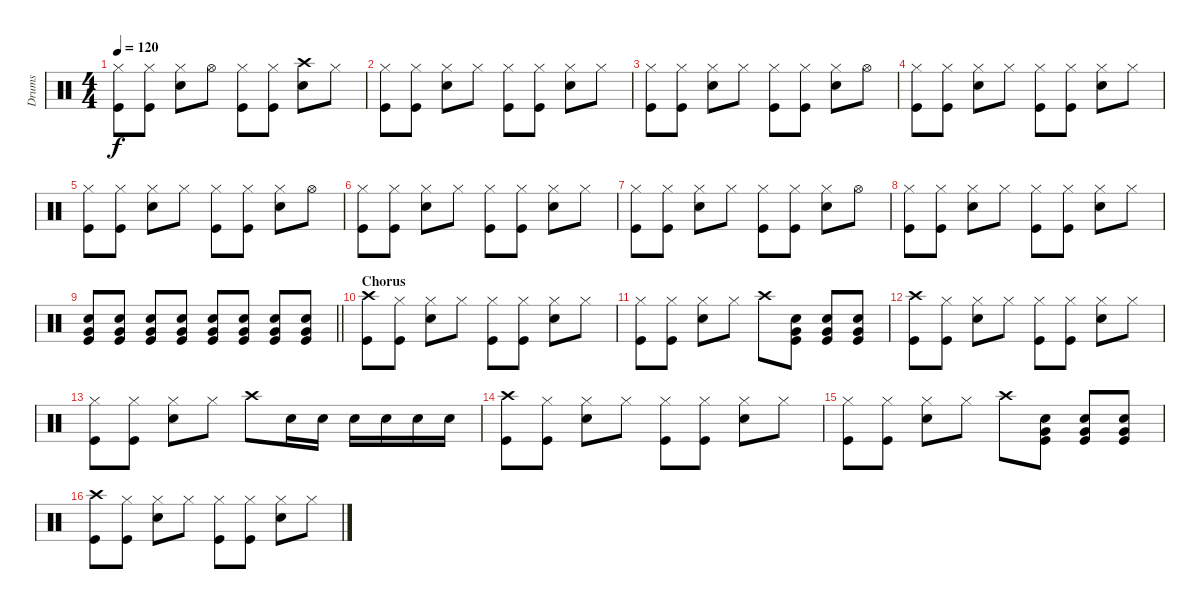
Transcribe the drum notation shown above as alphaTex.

\track ("Drums" "Drums") {instrument percussion}
\staff {score}
\articulation defaults
\ts (4 4)
\tempo 120
\clef neutral
\ks c
("Hi-Hat (closed)" "Kick (hit)").8{dy f} ("Hi-Hat (closed)" "Kick (hit)").8 ("Hi-Hat (closed)" "Snare (hit) 2").8 "Hi-Hat (open)".8 ("Hi-Hat (closed)" "Kick (hit)").8 ("Hi-Hat (closed)" "Kick (hit)").8 ("Crash high (hit)" "Snare (hit) 2").8 "Hi-Hat (closed)".8 |
("Hi-Hat (closed)" "Kick (hit)").8 ("Hi-Hat (closed)" "Kick (hit)").8 ("Hi-Hat (closed)" "Snare (hit) 2").8 "Hi-Hat (closed)".8 ("Hi-Hat (closed)" "Kick (hit)").8 ("Hi-Hat (closed)" "Kick (hit)").8 ("Hi-Hat (closed)" "Snare (hit) 2").8 "Hi-Hat (closed)".8 |
("Hi-Hat (closed)" "Kick (hit)").8 ("Hi-Hat (closed)" "Kick (hit)").8 ("Hi-Hat (closed)" "Snare (hit) 2").8 "Hi-Hat (closed)".8 ("Hi-Hat (closed)" "Kick (hit)").8 ("Hi-Hat (closed)" "Kick (hit)").8 ("Hi-Hat (closed)" "Snare (hit) 2").8 "Hi-Hat (open)".8 |
("Hi-Hat (closed)" "Kick (hit)").8 ("Hi-Hat (closed)" "Kick (hit)").8 ("Hi-Hat (closed)" "Snare (hit) 2").8 "Hi-Hat (closed)".8 ("Hi-Hat (closed)" "Kick (hit)").8 ("Hi-Hat (closed)" "Kick (hit)").8 ("Hi-Hat (closed)" "Snare (hit) 2").8 "Hi-Hat (closed)".8 |
("Hi-Hat (closed)" "Kick (hit)").8 ("Hi-Hat (closed)" "Kick (hit)").8 ("Hi-Hat (closed)" "Snare (hit) 2").8 "Hi-Hat (closed)".8 ("Hi-Hat (closed)" "Kick (hit)").8 ("Hi-Hat (closed)" "Kick (hit)").8 ("Hi-Hat (closed)" "Snare (hit) 2").8 "Hi-Hat (open)".8 |
("Hi-Hat (closed)" "Kick (hit)").8 ("Hi-Hat (closed)" "Kick (hit)").8 ("Hi-Hat (closed)" "Snare (hit) 2").8 "Hi-Hat (closed)".8 ("Hi-Hat (closed)" "Kick (hit)").8 ("Hi-Hat (closed)" "Kick (hit)").8 ("Hi-Hat (closed)" "Snare (hit) 2").8 "Hi-Hat (closed)".8 |
("Hi-Hat (closed)" "Kick (hit)").8 ("Hi-Hat (closed)" "Kick (hit)").8 ("Hi-Hat (closed)" "Snare (hit) 2").8 "Hi-Hat (closed)".8 ("Hi-Hat (closed)" "Kick (hit)").8 ("Hi-Hat (closed)" "Kick (hit)").8 ("Hi-Hat (closed)" "Snare (hit) 2").8 "Hi-Hat (open)".8 |
("Hi-Hat (closed)" "Kick (hit)").8 ("Hi-Hat (closed)" "Kick (hit)").8 ("Hi-Hat (closed)" "Snare (hit) 2").8 "Hi-Hat (closed)".8 ("Hi-Hat (closed)" "Kick (hit)").8 ("Hi-Hat (closed)" "Kick (hit)").8 ("Hi-Hat (closed)" "Snare (hit) 2").8 "Hi-Hat (closed)".8 |
\barLineRight lightlight
("Snare (hit) 2" "Very Low Tom (hit)" "Kick (hit)").8 ("Snare (hit) 2" "Very Low Tom (hit)" "Kick (hit)").8 ("Snare (hit) 2" "Very Low Tom (hit)" "Kick (hit)").8 ("Snare (hit) 2" "Very Low Tom (hit)" "Kick (hit)").8 ("Snare (hit) 2" "Very Low Tom (hit)" "Kick (hit)").8 ("Snare (hit) 2" "Very Low Tom (hit)" "Kick (hit)").8 ("Snare (hit) 2" "Very Low Tom (hit)" "Kick (hit)").8 ("Snare (hit) 2" "Very Low Tom (hit)" "Kick (hit)").8 |
\section ("" "Chorus")
("Crash high (hit)" "Kick (hit)").8 ("Hi-Hat (closed)" "Kick (hit)").8 ("Hi-Hat (closed)" "Snare (hit) 2").8 "Hi-Hat (closed)".8 ("Hi-Hat (closed)" "Kick (hit)").8 ("Hi-Hat (closed)" "Kick (hit)").8 ("Hi-Hat (closed)" "Snare (hit) 2").8 "Hi-Hat (closed)".8 |
("Hi-Hat (closed)" "Kick (hit)").8 ("Hi-Hat (closed)" "Kick (hit)").8 ("Hi-Hat (closed)" "Snare (hit) 2").8 "Hi-Hat (closed)".8 "Crash high (hit)".8 ("Snare (hit) 2" "Very Low Tom (hit)" "Kick (hit)").8 ("Snare (hit) 2" "Very Low Tom (hit)" "Kick (hit)").8 ("Snare (hit) 2" "Very Low Tom (hit)" "Kick (hit)").8 |
("Crash high (hit)" "Kick (hit)").8 ("Hi-Hat (closed)" "Kick (hit)").8 ("Hi-Hat (closed)" "Snare (hit) 2").8 "Hi-Hat (closed)".8 ("Hi-Hat (closed)" "Kick (hit)").8 ("Hi-Hat (closed)" "Kick (hit)").8 ("Hi-Hat (closed)" "Snare (hit) 2").8 "Hi-Hat (closed)".8 |
("Hi-Hat (closed)" "Kick (hit)").8 ("Hi-Hat (closed)" "Kick (hit)").8 ("Hi-Hat (closed)" "Snare (hit) 2").8 "Hi-Hat (closed)".8 "Crash high (hit)".8 "Snare (hit) 2".16 "Snare (hit) 2".16 "Snare (hit) 2".16 "Snare (hit) 2".16 "Snare (hit) 2".16 "Snare (hit) 2".16 |
("Crash high (hit)" "Kick (hit)").8 ("Hi-Hat (closed)" "Kick (hit)").8 ("Hi-Hat (closed)" "Snare (hit) 2").8 "Hi-Hat (closed)".8 ("Hi-Hat (closed)" "Kick (hit)").8 ("Hi-Hat (closed)" "Kick (hit)").8 ("Hi-Hat (closed)" "Snare (hit) 2").8 "Hi-Hat (closed)".8 |
("Hi-Hat (closed)" "Kick (hit)").8 ("Hi-Hat (closed)" "Kick (hit)").8 ("Hi-Hat (closed)" "Snare (hit) 2").8 "Hi-Hat (closed)".8 "Crash high (hit)".8 ("Snare (hit) 2" "Very Low Tom (hit)" "Kick (hit)").8 ("Snare (hit) 2" "Very Low Tom (hit)" "Kick (hit)").8 ("Snare (hit) 2" "Very Low Tom (hit)" "Kick (hit)").8 |
("Crash high (hit)" "Kick (hit)").8 ("Hi-Hat (closed)" "Kick (hit)").8 ("Hi-Hat (closed)" "Snare (hit) 2").8 "Hi-Hat (closed)".8 ("Hi-Hat (closed)" "Kick (hit)").8 ("Hi-Hat (closed)" "Kick (hit)").8 ("Hi-Hat (closed)" "Snare (hit) 2").8 "Hi-Hat (closed)".8
